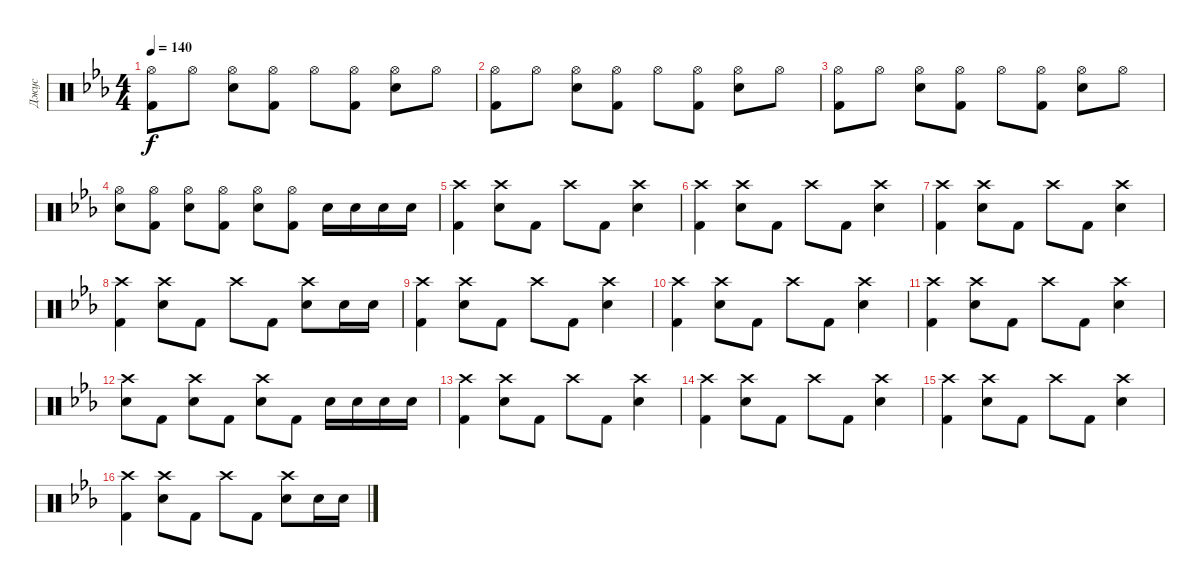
\track ("Джус" "Джус") {instrument percussion}
\staff {score}
\articulation defaults
\ts (4 4)
\tempo 140
\clef neutral
\ks eb
("Hi-Hat (open)" "Kick (hit) 2").8{dy f} "Hi-Hat (open)".8 ("Hi-Hat (open)" "Electric Snare (hit)").8 ("Hi-Hat (open)" "Kick (hit) 2").8 "Hi-Hat (open)".8 ("Hi-Hat (open)" "Kick (hit) 2").8 ("Hi-Hat (open)" "Electric Snare (hit)").8 "Hi-Hat (open)".8 |
("Hi-Hat (open)" "Kick (hit) 2").8 "Hi-Hat (open)".8 ("Hi-Hat (open)" "Electric Snare (hit)").8 ("Hi-Hat (open)" "Kick (hit) 2").8 "Hi-Hat (open)".8 ("Hi-Hat (open)" "Kick (hit) 2").8 ("Hi-Hat (open)" "Electric Snare (hit)").8 "Hi-Hat (open)".8 |
("Hi-Hat (open)" "Kick (hit) 2").8 "Hi-Hat (open)".8 ("Hi-Hat (open)" "Electric Snare (hit)").8 ("Hi-Hat (open)" "Kick (hit) 2").8 "Hi-Hat (open)".8 ("Hi-Hat (open)" "Kick (hit) 2").8 ("Hi-Hat (open)" "Electric Snare (hit)").8 "Hi-Hat (open)".8 |
("Hi-Hat (open)" "Electric Snare (hit)").8 ("Hi-Hat (open)" "Kick (hit) 2").8 ("Hi-Hat (open)" "Electric Snare (hit)").8 ("Hi-Hat (open)" "Kick (hit) 2").8 ("Hi-Hat (open)" "Electric Snare (hit)").8 ("Hi-Hat (open)" "Kick (hit) 2").8 "Electric Snare (hit)".16 "Electric Snare (hit)".16 "Electric Snare (hit)".16 "Electric Snare (hit)".16 |
("Crash high (hit)" "Kick (hit) 2").4 ("Crash high (hit)" "Electric Snare (hit)").8 "Kick (hit) 2".8 "Crash high (hit)".8 "Kick (hit) 2".8 ("Crash high (hit)" "Electric Snare (hit)").4 |
("Crash high (hit)" "Kick (hit) 2").4 ("Crash high (hit)" "Electric Snare (hit)").8 "Kick (hit) 2".8 "Crash high (hit)".8 "Kick (hit) 2".8 ("Crash high (hit)" "Electric Snare (hit)").4 |
("Crash high (hit)" "Kick (hit) 2").4 ("Crash high (hit)" "Electric Snare (hit)").8 "Kick (hit) 2".8 "Crash high (hit)".8 "Kick (hit) 2".8 ("Crash high (hit)" "Electric Snare (hit)").4 |
("Crash high (hit)" "Kick (hit) 2").4 ("Crash high (hit)" "Electric Snare (hit)").8 "Kick (hit) 2".8 "Crash high (hit)".8 "Kick (hit) 2".8 ("Crash high (hit)" "Electric Snare (hit)").8 "Electric Snare (hit)".16 "Electric Snare (hit)".16 |
("Crash high (hit)" "Kick (hit) 2").4 ("Crash high (hit)" "Electric Snare (hit)").8 "Kick (hit) 2".8 "Crash high (hit)".8 "Kick (hit) 2".8 ("Crash high (hit)" "Electric Snare (hit)").4 |
("Crash high (hit)" "Kick (hit) 2").4 ("Crash high (hit)" "Electric Snare (hit)").8 "Kick (hit) 2".8 "Crash high (hit)".8 "Kick (hit) 2".8 ("Crash high (hit)" "Electric Snare (hit)").4 |
("Crash high (hit)" "Kick (hit) 2").4 ("Crash high (hit)" "Electric Snare (hit)").8 "Kick (hit) 2".8 "Crash high (hit)".8 "Kick (hit) 2".8 ("Crash high (hit)" "Electric Snare (hit)").4 |
("Crash high (hit)" "Electric Snare (hit)").8 "Kick (hit) 2".8 ("Crash high (hit)" "Electric Snare (hit)").8 "Kick (hit) 2".8 ("Crash high (hit)" "Electric Snare (hit)").8 "Kick (hit) 2".8 "Electric Snare (hit)".16 "Electric Snare (hit)".16 "Electric Snare (hit)".16 "Electric Snare (hit)".16 |
("Crash high (hit)" "Kick (hit) 2").4 ("Crash high (hit)" "Electric Snare (hit)").8 "Kick (hit) 2".8 "Crash high (hit)".8 "Kick (hit) 2".8 ("Crash high (hit)" "Electric Snare (hit)").4 |
("Crash high (hit)" "Kick (hit) 2").4 ("Crash high (hit)" "Electric Snare (hit)").8 "Kick (hit) 2".8 "Crash high (hit)".8 "Kick (hit) 2".8 ("Crash high (hit)" "Electric Snare (hit)").4 |
("Crash high (hit)" "Kick (hit) 2").4 ("Crash high (hit)" "Electric Snare (hit)").8 "Kick (hit) 2".8 "Crash high (hit)".8 "Kick (hit) 2".8 ("Crash high (hit)" "Electric Snare (hit)").4 |
("Crash high (hit)" "Kick (hit) 2").4 ("Crash high (hit)" "Electric Snare (hit)").8 "Kick (hit) 2".8 "Crash high (hit)".8 "Kick (hit) 2".8 ("Crash high (hit)" "Electric Snare (hit)").8 "Electric Snare (hit)".16 "Electric Snare (hit)".16
